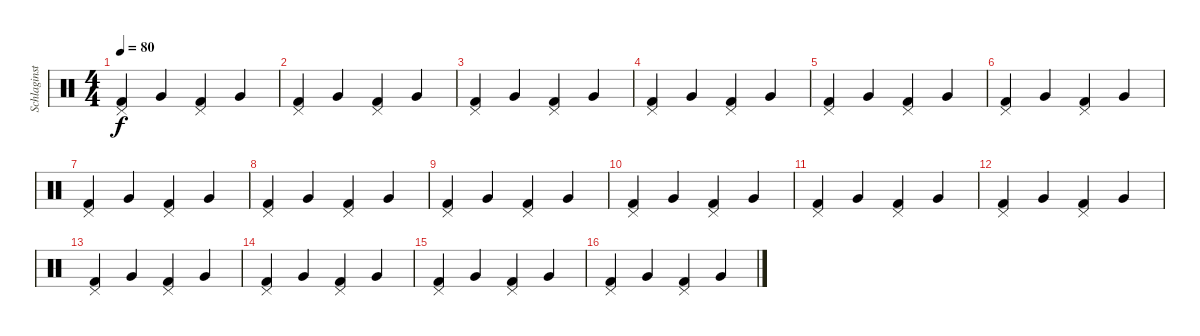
\track ("Schlaginstrumente - Auswahl" "Schlaginst") {instrument percussion}
\staff {score}
\articulation defaults
\ts (4 4)
\tempo 80
\clef neutral
\ks c
("Kick (hit) 2" "Pedal Hi-Hat (hit)").4{dy f} "Very Low Tom (hit)".4 ("Kick (hit) 2" "Pedal Hi-Hat (hit)").4 "Very Low Tom (hit)".4 |
("Kick (hit) 2" "Pedal Hi-Hat (hit)").4 "Very Low Tom (hit)".4 ("Kick (hit) 2" "Pedal Hi-Hat (hit)").4 "Very Low Tom (hit)".4 |
("Kick (hit) 2" "Pedal Hi-Hat (hit)").4 "Very Low Tom (hit)".4 ("Kick (hit) 2" "Pedal Hi-Hat (hit)").4 "Very Low Tom (hit)".4 |
("Kick (hit) 2" "Pedal Hi-Hat (hit)").4 "Very Low Tom (hit)".4 ("Kick (hit) 2" "Pedal Hi-Hat (hit)").4 "Very Low Tom (hit)".4 |
("Kick (hit) 2" "Pedal Hi-Hat (hit)").4 "Very Low Tom (hit)".4 ("Kick (hit) 2" "Pedal Hi-Hat (hit)").4 "Very Low Tom (hit)".4 |
("Kick (hit) 2" "Pedal Hi-Hat (hit)").4 "Very Low Tom (hit)".4 ("Kick (hit) 2" "Pedal Hi-Hat (hit)").4 "Very Low Tom (hit)".4 |
("Kick (hit) 2" "Pedal Hi-Hat (hit)").4 "Very Low Tom (hit)".4 ("Kick (hit) 2" "Pedal Hi-Hat (hit)").4 "Very Low Tom (hit)".4 |
("Kick (hit) 2" "Pedal Hi-Hat (hit)").4 "Very Low Tom (hit)".4 ("Kick (hit) 2" "Pedal Hi-Hat (hit)").4 "Very Low Tom (hit)".4 |
("Kick (hit) 2" "Pedal Hi-Hat (hit)").4 "Very Low Tom (hit)".4 ("Kick (hit) 2" "Pedal Hi-Hat (hit)").4 "Very Low Tom (hit)".4 |
("Kick (hit) 2" "Pedal Hi-Hat (hit)").4 "Very Low Tom (hit)".4 ("Kick (hit) 2" "Pedal Hi-Hat (hit)").4 "Very Low Tom (hit)".4 |
("Kick (hit) 2" "Pedal Hi-Hat (hit)").4 "Very Low Tom (hit)".4 ("Kick (hit) 2" "Pedal Hi-Hat (hit)").4 "Very Low Tom (hit)".4 |
("Kick (hit) 2" "Pedal Hi-Hat (hit)").4 "Very Low Tom (hit)".4 ("Kick (hit) 2" "Pedal Hi-Hat (hit)").4 "Very Low Tom (hit)".4 |
("Kick (hit) 2" "Pedal Hi-Hat (hit)").4 "Very Low Tom (hit)".4 ("Kick (hit) 2" "Pedal Hi-Hat (hit)").4 "Very Low Tom (hit)".4 |
("Kick (hit) 2" "Pedal Hi-Hat (hit)").4 "Very Low Tom (hit)".4 ("Kick (hit) 2" "Pedal Hi-Hat (hit)").4 "Very Low Tom (hit)".4 |
("Kick (hit) 2" "Pedal Hi-Hat (hit)").4 "Very Low Tom (hit)".4 ("Kick (hit) 2" "Pedal Hi-Hat (hit)").4 "Very Low Tom (hit)".4 |
("Kick (hit) 2" "Pedal Hi-Hat (hit)").4 "Very Low Tom (hit)".4 ("Kick (hit) 2" "Pedal Hi-Hat (hit)").4 "Very Low Tom (hit)".4
